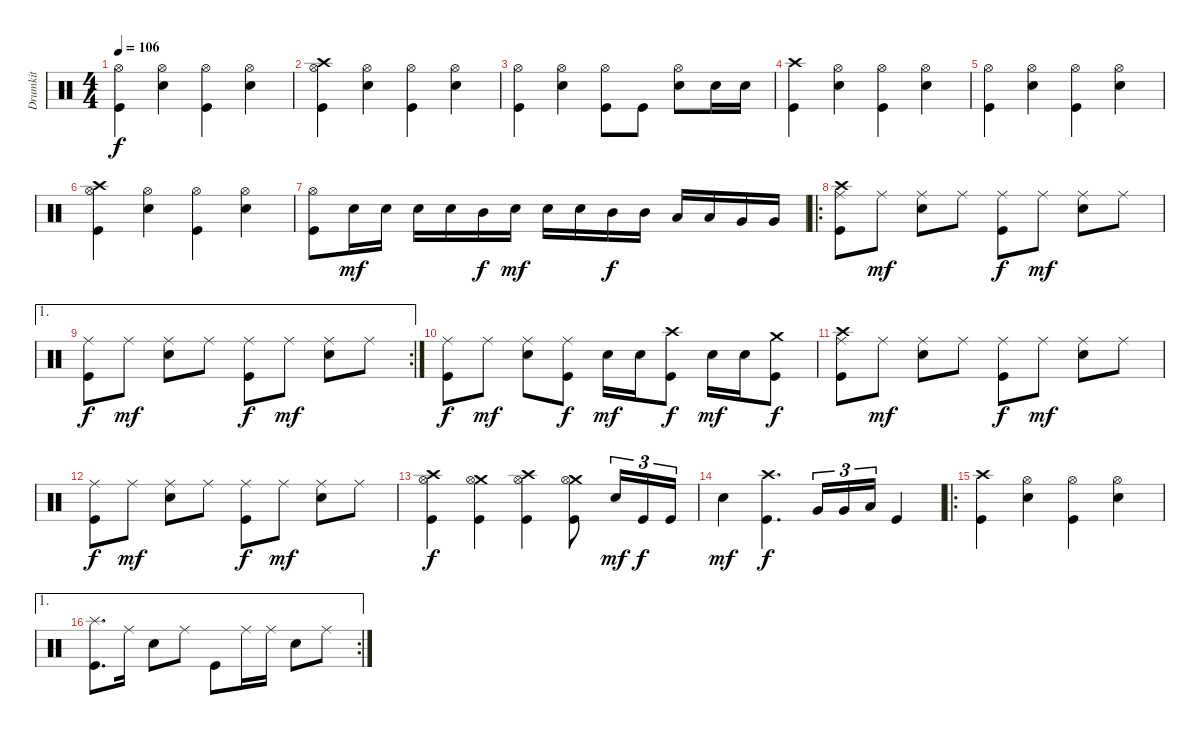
\track ("Drumkit" "Drumkit") {instrument percussion}
\staff {score}
\articulation defaults
\ts (4 4)
\tempo 106
\clef neutral
\ks c
("Kick (hit)" "Hi-Hat (open)").4{dy f} ("Hi-Hat (open)" "Snare (hit) 2").4 ("Kick (hit)" "Hi-Hat (open)").4 ("Hi-Hat (open)" "Snare (hit) 2").4 |
("Kick (hit)" "Crash high (hit)" "Hi-Hat (open)").4 ("Hi-Hat (open)" "Snare (hit) 2").4 ("Kick (hit)" "Hi-Hat (open)").4 ("Hi-Hat (open)" "Snare (hit) 2").4 |
("Kick (hit)" "Hi-Hat (open)").4 ("Hi-Hat (open)" "Snare (hit) 2").4 ("Kick (hit)" "Hi-Hat (open)").8 "Kick (hit)".8 ("Hi-Hat (open)" "Snare (hit) 2").8 "Snare (hit) 2".16 "Snare (hit) 2".16 |
("Kick (hit)" "Crash high (hit)").4 ("Hi-Hat (open)" "Snare (hit) 2").4 ("Kick (hit)" "Hi-Hat (open)").4 ("Hi-Hat (open)" "Snare (hit) 2").4 |
("Kick (hit)" "Hi-Hat (open)").4 ("Hi-Hat (open)" "Snare (hit) 2").4 ("Kick (hit)" "Hi-Hat (open)").4 ("Hi-Hat (open)" "Snare (hit) 2").4 |
("Kick (hit)" "Crash high (hit)" "Hi-Hat (open)").4 ("Hi-Hat (open)" "Snare (hit) 2").4 ("Kick (hit)" "Hi-Hat (open)").4 ("Hi-Hat (open)" "Snare (hit) 2").4 |
("Kick (hit)" "Hi-Hat (open)").8 "Snare (hit) 2".16{dy mf} "Snare (hit) 2".16 "Snare (hit) 2".16 "Snare (hit) 2".16 "Mid Tom (hit)".16{dy f} "Snare (hit) 2".16{dy mf} "Snare (hit) 2".16 "Snare (hit) 2".16 "Mid Tom (hit)".16{dy f} "Mid Tom (hit)".16 "Low Tom (hit)".16 "Low Tom (hit)".16 "Very Low Tom (hit)".16 "Very Low Tom (hit)".16 |
\ro
("Kick (hit)" "Crash high (hit)" "Ride (middle)").8 "Ride (middle)".8{dy mf} ("Ride (middle)" "Snare (hit) 2").8 "Ride (middle)".8 ("Kick (hit)" "Ride (middle)").8{dy f} "Ride (middle)".8{dy mf} ("Ride (middle)" "Snare (hit) 2").8 "Ride (middle)".8 |
\ae 1
\rc 2
("Kick (hit)" "Ride (middle)").8{dy f} "Ride (middle)".8{dy mf} ("Ride (middle)" "Snare (hit) 2").8 "Ride (middle)".8 ("Kick (hit)" "Ride (middle)").8{dy f} "Ride (middle)".8{dy mf} ("Ride (middle)" "Snare (hit) 2").8 "Ride (middle)".8 |
("Kick (hit)" "Ride (middle)").8{dy f} "Ride (middle)".8{dy mf} ("Ride (middle)" "Snare (hit) 2").8 ("Kick (hit)" "Ride (middle)").8{dy f} "Snare (hit) 2".16{dy mf} "Snare (hit) 2".16 ("Kick (hit)" "Crash high (hit)").8{dy f} "Snare (hit) 2".16{dy mf} "Snare (hit) 2".16 ("Kick (hit)" "Crash medium (hit)").8{dy f} |
("Kick (hit)" "Crash high (hit)" "Ride (middle)").8 "Ride (middle)".8{dy mf} ("Ride (middle)" "Snare (hit) 2").8 "Ride (middle)".8 ("Kick (hit)" "Ride (middle)").8{dy f} "Ride (middle)".8{dy mf} ("Ride (middle)" "Snare (hit) 2").8 "Ride (middle)".8 |
("Kick (hit)" "Ride (middle)").8{dy f} "Ride (middle)".8{dy mf} ("Ride (middle)" "Snare (hit) 2").8 "Ride (middle)".8 ("Kick (hit)" "Ride (middle)").8{dy f} "Ride (middle)".8{dy mf} ("Ride (middle)" "Snare (hit) 2").8 "Ride (middle)".8 |
("Kick (hit)" "Crash high (hit)" "Hi-Hat (open)").4{dy f} ("Kick (hit)" "Crash medium (hit)" "Hi-Hat (open)").4 ("Kick (hit)" "Crash high (hit)" "Hi-Hat (open)").4 ("Kick (hit)" "Crash medium (hit)" "Hi-Hat (open)").8 "Snare (hit) 2".16{tu (3 2) dy mf} "Kick (hit)".16{tu (3 2) dy f} "Kick (hit)".16{tu (3 2)} |
"Snare (hit) 2".4{dy mf} ("Kick (hit)" "Crash high (hit)").4{d dy f} "Very Low Tom (hit)".16{tu (3 2)} "Very Low Tom (hit)".16{tu (3 2)} "Low Floor Tom (hit)".16{tu (3 2)} "Kick (hit)".4 |
\ro
("Kick (hit)" "Crash high (hit)").4 ("Hi-Hat (open)" "Snare (hit) 2").4 ("Kick (hit)" "Hi-Hat (open)").4 ("Hi-Hat (open)" "Snare (hit) 2").4 |
\ae 1
\rc 2
("Kick (hit)" "Splash (hit)").8{d} "Ride (middle)".16 "Snare (hit) 2".8 "Ride (middle)".8 "Kick (hit)".8 "Ride (middle)".16 "Ride (middle)".16 "Snare (hit) 2".8 "Ride (middle)".8
